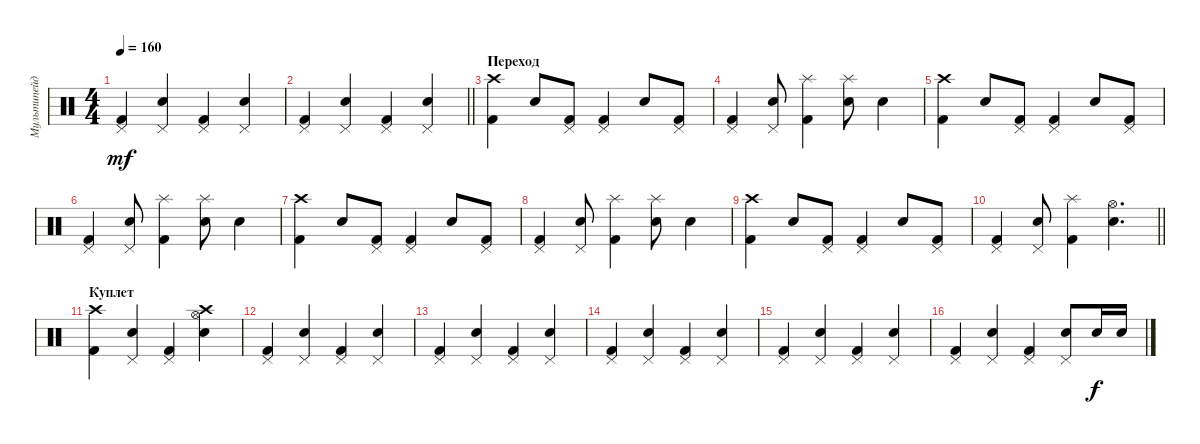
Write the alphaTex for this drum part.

\track ("Мультипейджер" "Мультипейд") {instrument percussion}
\staff {score}
\articulation defaults
\ts (4 4)
\tempo 160
\clef neutral
\ks c
("Pedal Hi-Hat (hit)" "Kick (hit) 2").4{dy mf} ("Pedal Hi-Hat (hit)" "Snare (hit) 2").4 ("Pedal Hi-Hat (hit)" "Kick (hit) 2").4 ("Pedal Hi-Hat (hit)" "Snare (hit) 2").4 |
\barLineRight lightlight
("Pedal Hi-Hat (hit)" "Kick (hit) 2").4 ("Pedal Hi-Hat (hit)" "Snare (hit) 2").4 ("Pedal Hi-Hat (hit)" "Kick (hit) 2").4 ("Pedal Hi-Hat (hit)" "Snare (hit) 2").4 |
\section ("" "Переход")
("Crash high (hit)" "Kick (hit) 2").4 "Snare (hit) 2".8 ("Pedal Hi-Hat (hit)" "Kick (hit) 2").8 ("Pedal Hi-Hat (hit)" "Kick (hit) 2").4 "Snare (hit) 2".8 ("Pedal Hi-Hat (hit)" "Kick (hit) 2").8 |
("Pedal Hi-Hat (hit)" "Kick (hit) 2").4 ("Pedal Hi-Hat (hit)" "Snare (hit) 2").8 ("Splash (hit)" "Kick (hit) 2").4 ("Splash (hit)" "Snare (hit) 2").8 "Snare (hit) 2".4 |
("Crash high (hit)" "Kick (hit) 2").4 "Snare (hit) 2".8 ("Pedal Hi-Hat (hit)" "Kick (hit) 2").8 ("Pedal Hi-Hat (hit)" "Kick (hit) 2").4 "Snare (hit) 2".8 ("Pedal Hi-Hat (hit)" "Kick (hit) 2").8 |
("Pedal Hi-Hat (hit)" "Kick (hit) 2").4 ("Pedal Hi-Hat (hit)" "Snare (hit) 2").8 ("Splash (hit)" "Kick (hit) 2").4 ("Splash (hit)" "Snare (hit) 2").8 "Snare (hit) 2".4 |
("Crash high (hit)" "Kick (hit) 2").4 "Snare (hit) 2".8 ("Pedal Hi-Hat (hit)" "Kick (hit) 2").8 ("Pedal Hi-Hat (hit)" "Kick (hit) 2").4 "Snare (hit) 2".8 ("Pedal Hi-Hat (hit)" "Kick (hit) 2").8 |
("Pedal Hi-Hat (hit)" "Kick (hit) 2").4 ("Pedal Hi-Hat (hit)" "Snare (hit) 2").8 ("Splash (hit)" "Kick (hit) 2").4 ("Splash (hit)" "Snare (hit) 2").8 "Snare (hit) 2".4 |
("Crash high (hit)" "Kick (hit) 2").4 "Snare (hit) 2".8 ("Pedal Hi-Hat (hit)" "Kick (hit) 2").8 ("Pedal Hi-Hat (hit)" "Kick (hit) 2").4 "Snare (hit) 2".8 ("Pedal Hi-Hat (hit)" "Kick (hit) 2").8 |
\barLineRight lightlight
("Pedal Hi-Hat (hit)" "Kick (hit) 2").4 ("Pedal Hi-Hat (hit)" "Snare (hit) 2").8 ("Splash (hit)" "Kick (hit) 2").4 ("Hi-Hat (open)" "Snare (hit) 2").4{d} |
\section ("" "Куплет")
("Crash high (hit)" "Kick (hit) 2").4 ("Pedal Hi-Hat (hit)" "Snare (hit) 2").4 ("Pedal Hi-Hat (hit)" "Kick (hit) 2").4 ("Hi-Hat (open)" "Crash high (hit)" "Snare (hit) 2").4 |
("Pedal Hi-Hat (hit)" "Kick (hit) 2").4 ("Pedal Hi-Hat (hit)" "Snare (hit) 2").4 ("Pedal Hi-Hat (hit)" "Kick (hit) 2").4 ("Pedal Hi-Hat (hit)" "Snare (hit) 2").4 |
("Pedal Hi-Hat (hit)" "Kick (hit) 2").4 ("Pedal Hi-Hat (hit)" "Snare (hit) 2").4 ("Pedal Hi-Hat (hit)" "Kick (hit) 2").4 ("Pedal Hi-Hat (hit)" "Snare (hit) 2").4 |
("Pedal Hi-Hat (hit)" "Kick (hit) 2").4 ("Pedal Hi-Hat (hit)" "Snare (hit) 2").4 ("Pedal Hi-Hat (hit)" "Kick (hit) 2").4 ("Pedal Hi-Hat (hit)" "Snare (hit) 2").4 |
("Pedal Hi-Hat (hit)" "Kick (hit) 2").4 ("Pedal Hi-Hat (hit)" "Snare (hit) 2").4 ("Pedal Hi-Hat (hit)" "Kick (hit) 2").4 ("Pedal Hi-Hat (hit)" "Snare (hit) 2").4 |
("Pedal Hi-Hat (hit)" "Kick (hit) 2").4 ("Pedal Hi-Hat (hit)" "Snare (hit) 2").4 ("Pedal Hi-Hat (hit)" "Kick (hit) 2").4 ("Pedal Hi-Hat (hit)" "Snare (hit) 2").8 "Electric Snare (hit)".16{dy f} "Electric Snare (hit)".16
